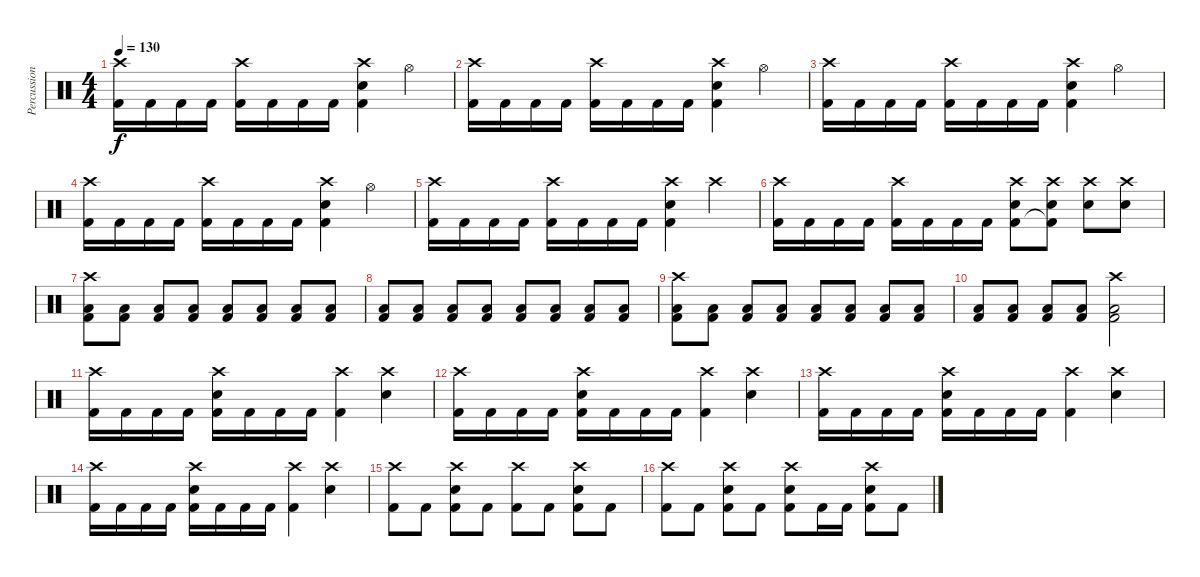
\track ("Percussion" "Percussion") {instrument percussion}
\staff {score}
\articulation defaults
\ts (4 4)
\tempo 130
\clef neutral
\ks c
("Crash high (hit)" "Kick (hit) 2").16{dy f} "Kick (hit) 2".16 "Kick (hit) 2".16 "Kick (hit) 2".16 ("Crash high (hit)" "Kick (hit) 2").16 "Kick (hit) 2".16 "Kick (hit) 2".16 "Kick (hit) 2".16 ("Crash high (hit)" "Electric Snare (hit)" "Kick (hit) 2").4 "Hi-Hat (open)".4 |
("Crash high (hit)" "Kick (hit) 2").16 "Kick (hit) 2".16 "Kick (hit) 2".16 "Kick (hit) 2".16 ("Crash high (hit)" "Kick (hit) 2").16 "Kick (hit) 2".16 "Kick (hit) 2".16 "Kick (hit) 2".16 ("Crash high (hit)" "Electric Snare (hit)" "Kick (hit) 2").4 "Hi-Hat (open)".4 |
("Crash high (hit)" "Kick (hit) 2").16 "Kick (hit) 2".16 "Kick (hit) 2".16 "Kick (hit) 2".16 ("Crash high (hit)" "Kick (hit) 2").16 "Kick (hit) 2".16 "Kick (hit) 2".16 "Kick (hit) 2".16 ("Crash high (hit)" "Electric Snare (hit)" "Kick (hit) 2").4 "Hi-Hat (open)".4 |
("Crash high (hit)" "Kick (hit) 2").16 "Kick (hit) 2".16 "Kick (hit) 2".16 "Kick (hit) 2".16 ("Crash high (hit)" "Kick (hit) 2").16 "Kick (hit) 2".16 "Kick (hit) 2".16 "Kick (hit) 2".16 ("Crash high (hit)" "Electric Snare (hit)" "Kick (hit) 2").4 "Hi-Hat (open)".4 |
("Crash high (hit)" "Kick (hit) 2").16 "Kick (hit) 2".16 "Kick (hit) 2".16 "Kick (hit) 2".16 ("Crash high (hit)" "Kick (hit) 2").16 "Kick (hit) 2".16 "Kick (hit) 2".16 "Kick (hit) 2".16 ("Crash high (hit)" "Electric Snare (hit)" "Kick (hit) 2").4 "Crash high (hit)".4 |
("Crash high (hit)" "Kick (hit) 2").16 "Kick (hit) 2".16 "Kick (hit) 2".16 "Kick (hit) 2".16 ("Crash high (hit)" "Kick (hit) 2").16 "Kick (hit) 2".16 "Kick (hit) 2".16 "Kick (hit) 2".16 ("Crash high (hit)" "Electric Snare (hit)" "Kick (hit) 2").8 ("Crash high (hit)" "Electric Snare (hit)" "Kick (hit) 2"{t}).8 ("Crash high (hit)" "Electric Snare (hit)").8 ("Crash high (hit)" "Electric Snare (hit)").8 |
("Crash high (hit)" "Low Floor Tom (hit)" "Kick (hit) 2").8 ("Low Floor Tom (hit)" "Kick (hit) 2").8 ("Low Floor Tom (hit)" "Kick (hit) 2").8 ("Low Floor Tom (hit)" "Kick (hit) 2").8 ("Low Floor Tom (hit)" "Kick (hit) 2").8 ("Low Floor Tom (hit)" "Kick (hit) 2").8 ("Low Floor Tom (hit)" "Kick (hit) 2").8 ("Low Floor Tom (hit)" "Kick (hit) 2").8 |
("Low Floor Tom (hit)" "Kick (hit) 2").8 ("Low Floor Tom (hit)" "Kick (hit) 2").8 ("Low Floor Tom (hit)" "Kick (hit) 2").8 ("Low Floor Tom (hit)" "Kick (hit) 2").8 ("Low Floor Tom (hit)" "Kick (hit) 2").8 ("Low Floor Tom (hit)" "Kick (hit) 2").8 ("Low Floor Tom (hit)" "Kick (hit) 2").8 ("Low Floor Tom (hit)" "Kick (hit) 2").8 |
("Crash high (hit)" "Low Floor Tom (hit)" "Kick (hit) 2").8 ("Low Floor Tom (hit)" "Kick (hit) 2").8 ("Low Floor Tom (hit)" "Kick (hit) 2").8 ("Low Floor Tom (hit)" "Kick (hit) 2").8 ("Low Floor Tom (hit)" "Kick (hit) 2").8 ("Low Floor Tom (hit)" "Kick (hit) 2").8 ("Low Floor Tom (hit)" "Kick (hit) 2").8 ("Low Floor Tom (hit)" "Kick (hit) 2").8 |
("Low Floor Tom (hit)" "Kick (hit) 2").8 ("Low Floor Tom (hit)" "Kick (hit) 2").8 ("Low Floor Tom (hit)" "Kick (hit) 2").8 ("Low Floor Tom (hit)" "Kick (hit) 2").8 ("Crash high (hit)" "Low Floor Tom (hit)" "Kick (hit) 2").2 |
("Crash high (hit)" "Kick (hit) 2").16 "Kick (hit) 2".16 "Kick (hit) 2".16 "Kick (hit) 2".16 ("Crash high (hit)" "Electric Snare (hit)" "Kick (hit) 2").16 "Kick (hit) 2".16 "Kick (hit) 2".16 "Kick (hit) 2".16 ("Crash high (hit)" "Kick (hit) 2").4 ("Crash high (hit)" "Electric Snare (hit)").4 |
("Crash high (hit)" "Kick (hit) 2").16 "Kick (hit) 2".16 "Kick (hit) 2".16 "Kick (hit) 2".16 ("Crash high (hit)" "Electric Snare (hit)" "Kick (hit) 2").16 "Kick (hit) 2".16 "Kick (hit) 2".16 "Kick (hit) 2".16 ("Crash high (hit)" "Kick (hit) 2").4 ("Crash high (hit)" "Electric Snare (hit)").4 |
("Crash high (hit)" "Kick (hit) 2").16 "Kick (hit) 2".16 "Kick (hit) 2".16 "Kick (hit) 2".16 ("Crash high (hit)" "Electric Snare (hit)" "Kick (hit) 2").16 "Kick (hit) 2".16 "Kick (hit) 2".16 "Kick (hit) 2".16 ("Crash high (hit)" "Kick (hit) 2").4 ("Crash high (hit)" "Electric Snare (hit)").4 |
("Crash high (hit)" "Kick (hit) 2").16 "Kick (hit) 2".16 "Kick (hit) 2".16 "Kick (hit) 2".16 ("Crash high (hit)" "Electric Snare (hit)" "Kick (hit) 2").16 "Kick (hit) 2".16 "Kick (hit) 2".16 "Kick (hit) 2".16 ("Crash high (hit)" "Kick (hit) 2").4 ("Crash high (hit)" "Electric Snare (hit)").4 |
("Crash high (hit)" "Kick (hit) 2").8 "Kick (hit) 2".8 ("Crash high (hit)" "Electric Snare (hit)" "Kick (hit) 2").8 "Kick (hit) 2".8 ("Crash high (hit)" "Kick (hit) 2").8 "Kick (hit) 2".8 ("Crash high (hit)" "Electric Snare (hit)" "Kick (hit) 2").8 "Kick (hit) 2".8 |
("Crash high (hit)" "Kick (hit) 2").8 "Kick (hit) 2".8 ("Crash high (hit)" "Electric Snare (hit)" "Kick (hit) 2").8 "Kick (hit) 2".8 ("Crash high (hit)" "Electric Snare (hit)" "Kick (hit) 2").8 "Kick (hit) 2".16 "Kick (hit) 2".16 ("Crash high (hit)" "Electric Snare (hit)" "Kick (hit) 2").8 "Kick (hit) 2".8
